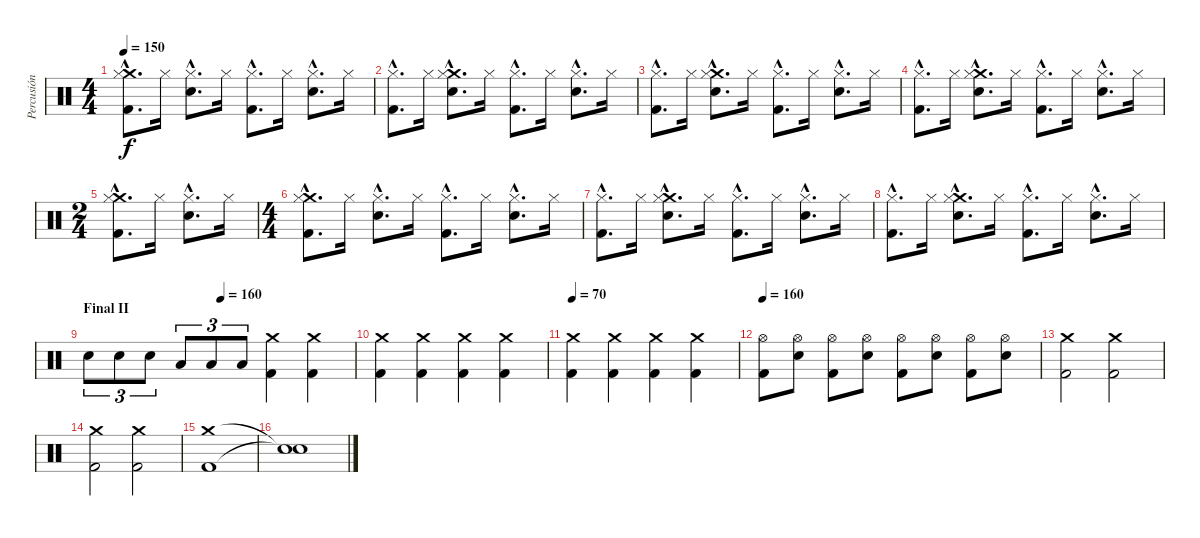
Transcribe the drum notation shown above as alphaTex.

\track ("Percusión" "Percusión") {instrument percussion}
\staff {score}
\articulation defaults
\ts (4 4)
\tempo 150
\clef neutral
\ks c
("Crash medium (hit)"{hac} "Hi-Hat (closed)"{hac} "Kick (hit) 2"{hac}).8{d dy f} "Hi-Hat (closed)".16 ("Hi-Hat (closed)"{hac} "Snare (hit) 2"{hac}).8{d} "Hi-Hat (closed)".16 ("Hi-Hat (closed)"{hac} "Kick (hit) 2"{hac}).8{d} "Hi-Hat (closed)".16 ("Hi-Hat (closed)"{hac} "Snare (hit) 2"{hac}).8{d} "Hi-Hat (closed)".16 |
("Hi-Hat (closed)"{hac} "Kick (hit) 2"{hac}).8{d} "Hi-Hat (closed)".16 ("Crash medium (hit)"{hac} "Hi-Hat (closed)"{hac} "Snare (hit) 2"{hac}).8{d} "Hi-Hat (closed)".16 ("Hi-Hat (closed)"{hac} "Kick (hit) 2"{hac}).8{d} "Hi-Hat (closed)".16 ("Hi-Hat (closed)"{hac} "Snare (hit) 2"{hac}).8{d} "Hi-Hat (closed)".16 |
("Hi-Hat (closed)"{hac} "Kick (hit) 2"{hac}).8{d} "Hi-Hat (closed)".16 ("Crash medium (hit)"{hac} "Hi-Hat (closed)"{hac} "Snare (hit) 2"{hac}).8{d} "Hi-Hat (closed)".16 ("Hi-Hat (closed)"{hac} "Kick (hit) 2"{hac}).8{d} "Hi-Hat (closed)".16 ("Hi-Hat (closed)"{hac} "Snare (hit) 2"{hac}).8{d} "Hi-Hat (closed)".16 |
("Hi-Hat (closed)"{hac} "Kick (hit) 2"{hac}).8{d} "Hi-Hat (closed)".16 ("Crash medium (hit)"{hac} "Hi-Hat (closed)"{hac} "Snare (hit) 2"{hac}).8{d} "Hi-Hat (closed)".16 ("Hi-Hat (closed)"{hac} "Kick (hit) 2"{hac}).8{d} "Hi-Hat (closed)".16 ("Hi-Hat (closed)"{hac} "Snare (hit) 2"{hac}).8{d} "Hi-Hat (closed)".16 |
\ts (2 4)
("Crash medium (hit)"{hac} "Hi-Hat (closed)"{hac} "Kick (hit) 2"{hac}).8{d} "Hi-Hat (closed)".16 ("Hi-Hat (closed)"{hac} "Snare (hit) 2"{hac}).8{d} "Hi-Hat (closed)".16 |
\ts (4 4)
("Crash medium (hit)"{hac} "Hi-Hat (closed)"{hac} "Kick (hit) 2"{hac}).8{d} "Hi-Hat (closed)".16 ("Hi-Hat (closed)"{hac} "Snare (hit) 2"{hac}).8{d} "Hi-Hat (closed)".16 ("Hi-Hat (closed)"{hac} "Kick (hit) 2"{hac}).8{d} "Hi-Hat (closed)".16 ("Hi-Hat (closed)"{hac} "Snare (hit) 2"{hac}).8{d} "Hi-Hat (closed)".16 |
("Hi-Hat (closed)"{hac} "Kick (hit) 2"{hac}).8{d} "Hi-Hat (closed)".16 ("Crash medium (hit)"{hac} "Hi-Hat (closed)"{hac} "Snare (hit) 2"{hac}).8{d} "Hi-Hat (closed)".16 ("Hi-Hat (closed)"{hac} "Kick (hit) 2"{hac}).8{d} "Hi-Hat (closed)".16 ("Hi-Hat (closed)"{hac} "Snare (hit) 2"{hac}).8{d} "Hi-Hat (closed)".16 |
("Hi-Hat (closed)"{hac} "Kick (hit) 2"{hac}).8{d} "Hi-Hat (closed)".16 ("Crash medium (hit)"{hac} "Hi-Hat (closed)"{hac} "Snare (hit) 2"{hac}).8{d} "Hi-Hat (closed)".16 ("Hi-Hat (closed)"{hac} "Kick (hit) 2"{hac}).8{d} "Hi-Hat (closed)".16 ("Hi-Hat (closed)"{hac} "Snare (hit) 2"{hac}).8{d} "Hi-Hat (closed)".16 |
\section ("" "Final II")
\tempo (160 0.5)
"Snare (hit) 2".8{tu (3 2)} "Snare (hit) 2".8{tu (3 2)} "Snare (hit) 2".8{tu (3 2)} "Low Tom (hit)".8{tu (3 2)} "Low Tom (hit)".8{tu (3 2)} "Low Tom (hit)".8{tu (3 2)} ("Kick (hit) 2" "Crash medium (hit)").4 ("Kick (hit) 2" "Crash medium (hit)").4 |
("Kick (hit) 2" "Crash medium (hit)").4 ("Kick (hit) 2" "Crash medium (hit)").4 ("Kick (hit) 2" "Crash medium (hit)").4 ("Kick (hit) 2" "Crash medium (hit)").4 |
\tempo 70
("Crash medium (hit)" "Kick (hit) 2").4 ("Crash medium (hit)" "Kick (hit) 2").4 ("Crash medium (hit)" "Kick (hit) 2").4 ("Crash medium (hit)" "Kick (hit) 2").4 |
\tempo 160
("Hi-Hat (open)" "Kick (hit) 2").8 ("Hi-Hat (open)" "Snare (hit) 2").8 ("Hi-Hat (open)" "Kick (hit) 2").8 ("Hi-Hat (open)" "Snare (hit) 2").8 ("Hi-Hat (open)" "Kick (hit) 2").8 ("Hi-Hat (open)" "Snare (hit) 2").8 ("Hi-Hat (open)" "Kick (hit) 2").8 ("Hi-Hat (open)" "Snare (hit) 2").8 |
("Crash medium (hit)" "Kick (hit) 2").2 ("Crash medium (hit)" "Kick (hit) 2").2 |
("Crash medium (hit)" "Kick (hit) 2").2 ("Crash medium (hit)" "Kick (hit) 2").2 |
("Crash medium (hit)" "Kick (hit) 2").1 |
("Snare (hit)"{t} "Snare (hit)"{t}).1
